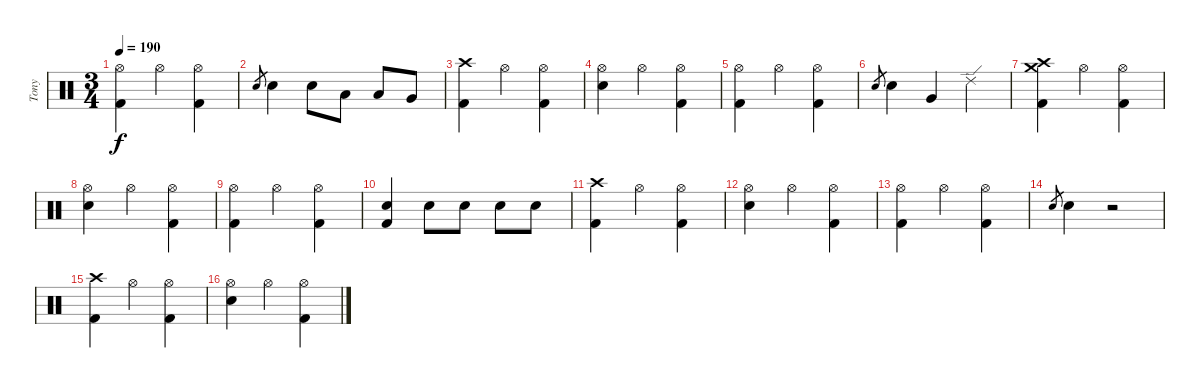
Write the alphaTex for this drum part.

\track ("Tony" "Tony") {instrument percussion}
\staff {score}
\articulation defaults
\ts (3 4)
\tempo 190
\clef neutral
\ks c
("Hi-Hat (open)" "Kick (hit) 2").4{dy f} "Hi-Hat (open)".4 ("Hi-Hat (open)" "Kick (hit) 2").4 |
"Snare (hit) 2".8{gr} "Snare (hit) 2".4 "Snare (hit) 2".8 "Low Tom (hit)".8 "Low Tom (hit)".8 "Very Low Tom (hit)".8 |
("Crash high (hit)" "Kick (hit) 2").4 "Hi-Hat (open)".4 ("Hi-Hat (open)" "Kick (hit) 2").4 |
("Hi-Hat (open)" "Snare (hit) 2").4 "Hi-Hat (open)".4 ("Hi-Hat (open)" "Kick (hit) 2").4 |
("Hi-Hat (open)" "Kick (hit) 2").4 "Hi-Hat (open)".4 ("Hi-Hat (open)" "Kick (hit) 2").4 |
"Snare (hit) 2".8{gr} "Snare (hit) 2".4 "Very Low Tom (hit)".4 "Ride (edge) 2".4 |
("Crash high (hit)" "Crash medium (hit)" "Kick (hit) 2").4 "Hi-Hat (open)".4 ("Hi-Hat (open)" "Kick (hit) 2").4 |
("Hi-Hat (open)" "Snare (hit) 2").4 "Hi-Hat (open)".4 ("Hi-Hat (open)" "Kick (hit) 2").4 |
("Hi-Hat (open)" "Kick (hit) 2").4 "Hi-Hat (open)".4 ("Hi-Hat (open)" "Kick (hit) 2").4 |
("Snare (hit) 2" "Kick (hit) 2").4 "Snare (hit) 2".8 "Snare (hit) 2".8 "Snare (hit) 2".8 "Snare (hit) 2".8 |
("Crash high (hit)" "Kick (hit) 2").4 "Hi-Hat (open)".4 ("Hi-Hat (open)" "Kick (hit) 2").4 |
("Hi-Hat (open)" "Snare (hit) 2").4 "Hi-Hat (open)".4 ("Hi-Hat (open)" "Kick (hit) 2").4 |
("Hi-Hat (open)" "Kick (hit) 2").4 "Hi-Hat (open)".4 ("Hi-Hat (open)" "Kick (hit) 2").4 |
"Snare (hit) 2".8{gr} "Snare (hit) 2".4 r.2 |
("Crash high (hit)" "Kick (hit) 2").4 "Hi-Hat (open)".4 ("Hi-Hat (open)" "Kick (hit) 2").4 |
("Hi-Hat (open)" "Snare (hit) 2").4 "Hi-Hat (open)".4 ("Hi-Hat (open)" "Kick (hit) 2").4
